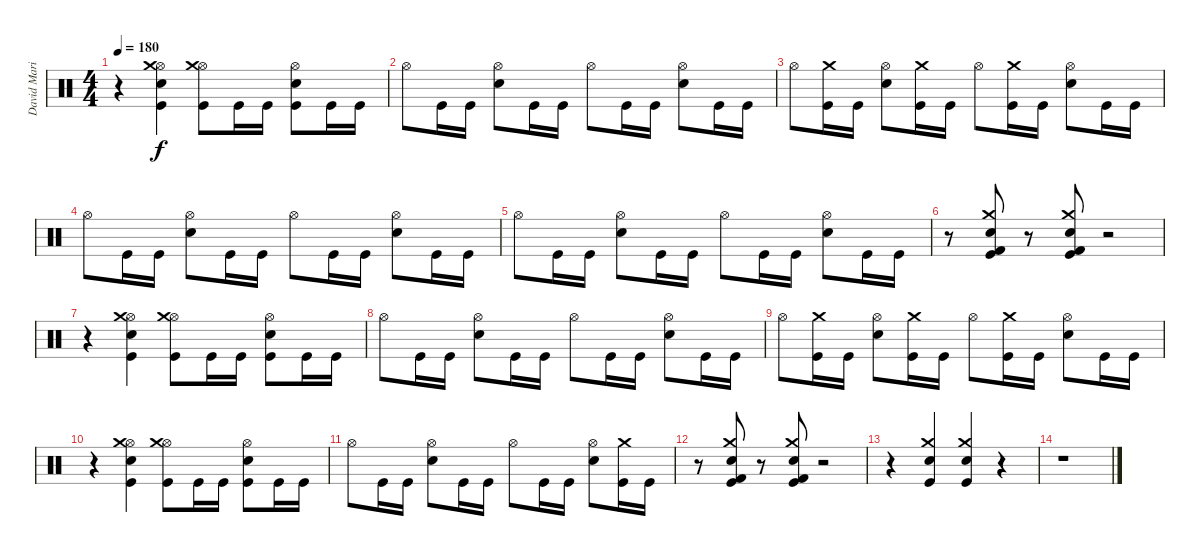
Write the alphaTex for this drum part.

\track ("David Marinero" "David Mari") {instrument percussion}
\staff {score}
\articulation defaults
\ts (4 4)
\tempo 180
\clef neutral
\ks c
r.4{dy f} ("Hi-Hat (open)" "Snare (hit) 2" "Crash medium (hit)" "Kick (hit)").4 ("Hi-Hat (open)" "Crash medium (hit)" "Kick (hit)").8 "Kick (hit)".16 "Kick (hit)".16 ("Hi-Hat (open)" "Snare (hit) 2" "Kick (hit)").8 "Kick (hit)".16 "Kick (hit)".16 |
"Hi-Hat (open)".8 "Kick (hit)".16 "Kick (hit)".16 ("Hi-Hat (open)" "Snare (hit) 2").8 "Kick (hit)".16 "Kick (hit)".16 "Hi-Hat (open)".8 "Kick (hit)".16 "Kick (hit)".16 ("Hi-Hat (open)" "Snare (hit) 2").8 "Kick (hit)".16 "Kick (hit)".16 |
"Hi-Hat (open)".8 ("Crash medium (hit)" "Kick (hit)").16 "Kick (hit)".16 ("Hi-Hat (open)" "Snare (hit) 2").8 ("Crash medium (hit)" "Kick (hit)").16 "Kick (hit)".16 "Hi-Hat (open)".8 ("Crash medium (hit)" "Kick (hit)").16 "Kick (hit)".16 ("Hi-Hat (open)" "Snare (hit) 2").8 "Kick (hit)".16 "Kick (hit)".16 |
"Hi-Hat (open)".8 "Kick (hit)".16 "Kick (hit)".16 ("Hi-Hat (open)" "Snare (hit) 2").8 "Kick (hit)".16 "Kick (hit)".16 "Hi-Hat (open)".8 "Kick (hit)".16 "Kick (hit)".16 ("Hi-Hat (open)" "Snare (hit) 2").8 "Kick (hit)".16 "Kick (hit)".16 |
"Hi-Hat (open)".8 "Kick (hit)".16 "Kick (hit)".16 ("Hi-Hat (open)" "Snare (hit) 2").8 "Kick (hit)".16 "Kick (hit)".16 "Hi-Hat (open)".8 "Kick (hit)".16 "Kick (hit)".16 ("Hi-Hat (open)" "Snare (hit) 2").8 "Kick (hit)".16 "Kick (hit)".16 |
r.8 ("Kick (hit) 2" "Snare (hit) 2" "Crash medium (hit)" "Kick (hit)").8 r.8 ("Kick (hit) 2" "Snare (hit) 2" "Crash medium (hit)" "Kick (hit)").8 r.2 |
r.4 ("Hi-Hat (open)" "Snare (hit) 2" "Crash medium (hit)" "Kick (hit)").4 ("Hi-Hat (open)" "Crash medium (hit)" "Kick (hit)").8 "Kick (hit)".16 "Kick (hit)".16 ("Hi-Hat (open)" "Snare (hit) 2" "Kick (hit)").8 "Kick (hit)".16 "Kick (hit)".16 |
"Hi-Hat (open)".8 "Kick (hit)".16 "Kick (hit)".16 ("Hi-Hat (open)" "Snare (hit) 2").8 "Kick (hit)".16 "Kick (hit)".16 "Hi-Hat (open)".8 "Kick (hit)".16 "Kick (hit)".16 ("Hi-Hat (open)" "Snare (hit) 2").8 "Kick (hit)".16 "Kick (hit)".16 |
"Hi-Hat (open)".8 ("Crash medium (hit)" "Kick (hit)").16 "Kick (hit)".16 ("Hi-Hat (open)" "Snare (hit) 2").8 ("Crash medium (hit)" "Kick (hit)").16 "Kick (hit)".16 "Hi-Hat (open)".8 ("Crash medium (hit)" "Kick (hit)").16 "Kick (hit)".16 ("Hi-Hat (open)" "Snare (hit) 2").8 "Kick (hit)".16 "Kick (hit)".16 |
r.4 ("Hi-Hat (open)" "Snare (hit) 2" "Crash medium (hit)" "Kick (hit)").4 ("Hi-Hat (open)" "Crash medium (hit)" "Kick (hit)").8 "Kick (hit)".16 "Kick (hit)".16 ("Hi-Hat (open)" "Snare (hit) 2" "Kick (hit)").8 "Kick (hit)".16 "Kick (hit)".16 |
"Hi-Hat (open)".8 "Kick (hit)".16 "Kick (hit)".16 ("Hi-Hat (open)" "Snare (hit) 2").8 "Kick (hit)".16 "Kick (hit)".16 "Hi-Hat (open)".8 "Kick (hit)".16 "Kick (hit)".16 ("Hi-Hat (open)" "Snare (hit) 2").8 ("Crash medium (hit)" "Kick (hit)").16 "Kick (hit)".16 |
r.8 ("Kick (hit) 2" "Snare (hit) 2" "Crash medium (hit)" "Kick (hit)").8 r.8 ("Kick (hit) 2" "Snare (hit) 2" "Crash medium (hit)" "Kick (hit)").8 r.2 |
r.4 ("Crash medium (hit)" "Snare (hit) 2" "Kick (hit)").4 ("Crash medium (hit)" "Snare (hit) 2" "Kick (hit)").4 r.4 |
r.1
